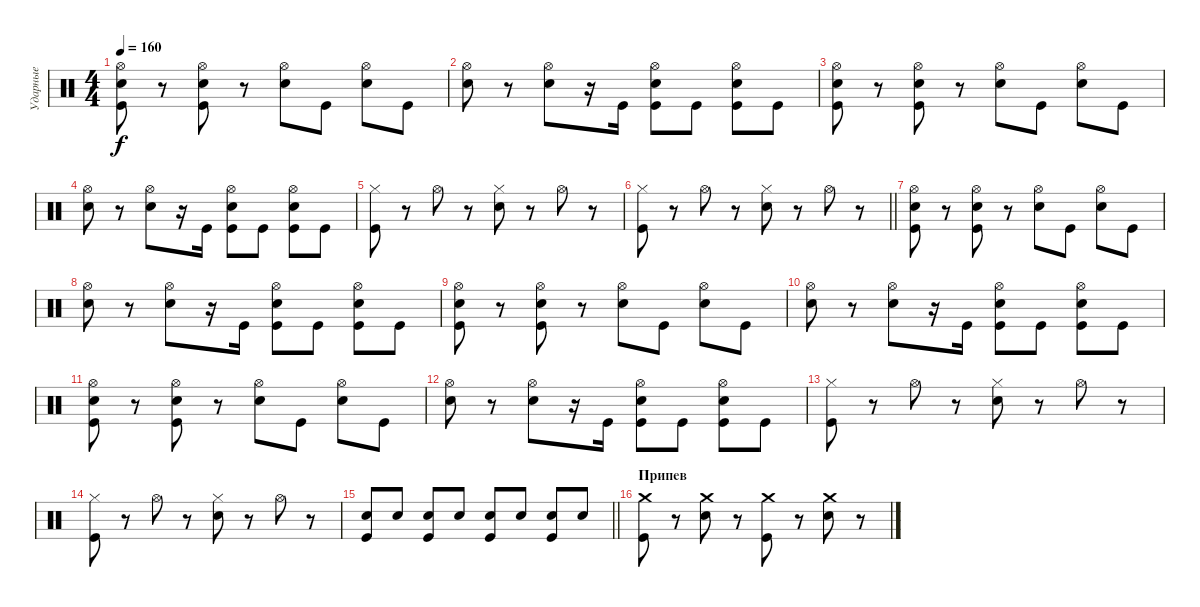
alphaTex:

\track ("Ударные" "Ударные") {instrument percussion}
\staff {score}
\articulation defaults
\ts (4 4)
\tempo 160
\clef neutral
\ks c
("Hi-Hat (open)" "Electric Snare (hit)" "Kick (hit)").8{dy f} r.8 ("Hi-Hat (open)" "Electric Snare (hit)" "Kick (hit)").8 r.8 ("Hi-Hat (open)" "Electric Snare (hit)").8 "Kick (hit)".8 ("Hi-Hat (open)" "Electric Snare (hit)").8 "Kick (hit)".8 |
("Hi-Hat (open)" "Electric Snare (hit)").8 r.8 ("Hi-Hat (open)" "Electric Snare (hit)").8 r.16 "Kick (hit)".16 ("Hi-Hat (open)" "Electric Snare (hit)" "Kick (hit)").8 "Kick (hit)".8 ("Hi-Hat (open)" "Electric Snare (hit)" "Kick (hit)").8 "Kick (hit)".8 |
("Hi-Hat (open)" "Electric Snare (hit)" "Kick (hit)").8 r.8 ("Hi-Hat (open)" "Electric Snare (hit)" "Kick (hit)").8 r.8 ("Hi-Hat (open)" "Electric Snare (hit)").8 "Kick (hit)".8 ("Hi-Hat (open)" "Electric Snare (hit)").8 "Kick (hit)".8 |
("Hi-Hat (open)" "Electric Snare (hit)").8 r.8 ("Hi-Hat (open)" "Electric Snare (hit)").8 r.16 "Kick (hit)".16 ("Hi-Hat (open)" "Electric Snare (hit)" "Kick (hit)").8 "Kick (hit)".8 ("Hi-Hat (open)" "Electric Snare (hit)" "Kick (hit)").8 "Kick (hit)".8 |
("Hi-Hat (closed)" "Kick (hit)").8 r.8 "Hi-Hat (open)".8 r.8 ("Hi-Hat (closed)" "Electric Snare (hit)").8 r.8 "Hi-Hat (open)".8 r.8 |
\barLineRight lightlight
("Hi-Hat (closed)" "Kick (hit)").8 r.8 "Hi-Hat (open)".8 r.8 ("Hi-Hat (closed)" "Electric Snare (hit)").8 r.8 "Hi-Hat (open)".8 r.8 |
\section ("" " ")
("Hi-Hat (open)" "Electric Snare (hit)" "Kick (hit)").8 r.8 ("Hi-Hat (open)" "Electric Snare (hit)" "Kick (hit)").8 r.8 ("Hi-Hat (open)" "Electric Snare (hit)").8 "Kick (hit)".8 ("Hi-Hat (open)" "Electric Snare (hit)").8 "Kick (hit)".8 |
("Hi-Hat (open)" "Electric Snare (hit)").8 r.8 ("Hi-Hat (open)" "Electric Snare (hit)").8 r.16 "Kick (hit)".16 ("Hi-Hat (open)" "Electric Snare (hit)" "Kick (hit)").8 "Kick (hit)".8 ("Hi-Hat (open)" "Electric Snare (hit)" "Kick (hit)").8 "Kick (hit)".8 |
("Hi-Hat (open)" "Electric Snare (hit)" "Kick (hit)").8 r.8 ("Hi-Hat (open)" "Electric Snare (hit)" "Kick (hit)").8 r.8 ("Hi-Hat (open)" "Electric Snare (hit)").8 "Kick (hit)".8 ("Hi-Hat (open)" "Electric Snare (hit)").8 "Kick (hit)".8 |
("Hi-Hat (open)" "Electric Snare (hit)").8 r.8 ("Hi-Hat (open)" "Electric Snare (hit)").8 r.16 "Kick (hit)".16 ("Hi-Hat (open)" "Electric Snare (hit)" "Kick (hit)").8 "Kick (hit)".8 ("Hi-Hat (open)" "Electric Snare (hit)" "Kick (hit)").8 "Kick (hit)".8 |
("Hi-Hat (open)" "Electric Snare (hit)" "Kick (hit)").8 r.8 ("Hi-Hat (open)" "Electric Snare (hit)" "Kick (hit)").8 r.8 ("Hi-Hat (open)" "Electric Snare (hit)").8 "Kick (hit)".8 ("Hi-Hat (open)" "Electric Snare (hit)").8 "Kick (hit)".8 |
("Hi-Hat (open)" "Electric Snare (hit)").8 r.8 ("Hi-Hat (open)" "Electric Snare (hit)").8 r.16 "Kick (hit)".16 ("Hi-Hat (open)" "Electric Snare (hit)" "Kick (hit)").8 "Kick (hit)".8 ("Hi-Hat (open)" "Electric Snare (hit)" "Kick (hit)").8 "Kick (hit)".8 |
("Hi-Hat (closed)" "Kick (hit)").8 r.8 "Hi-Hat (open)".8 r.8 ("Hi-Hat (closed)" "Electric Snare (hit)").8 r.8 "Hi-Hat (open)".8 r.8 |
("Hi-Hat (closed)" "Kick (hit)").8 r.8 "Hi-Hat (open)".8 r.8 ("Hi-Hat (closed)" "Electric Snare (hit)").8 r.8 "Hi-Hat (open)".8 r.8 |
\barLineRight lightlight
("Electric Snare (hit)" "Kick (hit)").8 "Electric Snare (hit)".8 ("Electric Snare (hit)" "Kick (hit)").8 "Electric Snare (hit)".8 ("Electric Snare (hit)" "Kick (hit)").8 "Electric Snare (hit)".8 ("Electric Snare (hit)" "Kick (hit)").8 "Electric Snare (hit)".8 |
\section ("" "Припев")
("Crash medium (hit)" "Kick (hit)").8 r.8 ("Crash medium (hit)" "Electric Snare (hit)").8 r.8 ("Crash medium (hit)" "Kick (hit)").8 r.8 ("Crash medium (hit)" "Electric Snare (hit)").8 r.8
